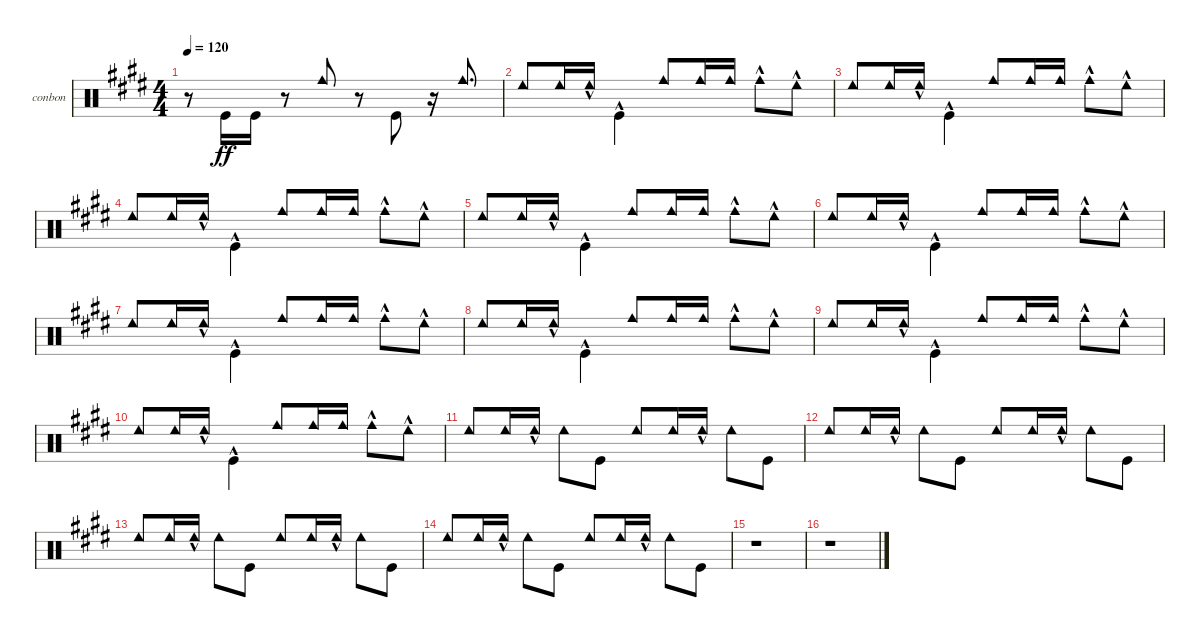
\defaultSystemsLayout 4
\bracketExtendMode groupsimilarinstruments
\firstSystemTrackNameOrientation horizontal
\otherSystemsTrackNameOrientation horizontal
\track ("Bongos N Congas" "conbon") {instrument percussion}
\staff {score}
\articulation defaults
\ts (4 4)
\tempo 120
\clef neutral
\scale
0.333333
\ks e
r.8{dy ff beam invert} "Kick (hit)".16{beam invert} "Kick (hit)".16 r.8{beam invert} "Cowbell medium (hit)".8{beam invert} r.8{beam invert} "Kick (hit)".8{beam invert} r.16{beam invert} "Cowbell medium (hit)".8{d beam invert} |
\scale
0.333333 "Cowbell low (hit)".8 "Cowbell low (hit)".16 "Cowbell low (hit)"{hac}.16 "Kick (hit)"{hac}.4{beam invert} "Cowbell medium (hit)".8{beam invert} "Cowbell medium (hit)".16 "Cowbell medium (hit)".16 "Cowbell medium (hit)"{hac}.8 "Cowbell low (hit)"{hac}.8 |
\scale
0.333333 "Cowbell low (hit)".8 "Cowbell low (hit)".16 "Cowbell low (hit)"{hac}.16 "Kick (hit)"{hac}.4{beam invert} "Cowbell medium (hit)".8{beam invert} "Cowbell medium (hit)".16 "Cowbell medium (hit)".16 "Cowbell medium (hit)"{hac}.8 "Cowbell low (hit)"{hac}.8 |
\scale
0.333333 "Cowbell low (hit)".8 "Cowbell low (hit)".16 "Cowbell low (hit)"{hac}.16 "Kick (hit)"{hac}.4{beam invert} "Cowbell medium (hit)".8{beam invert} "Cowbell medium (hit)".16 "Cowbell medium (hit)".16 "Cowbell medium (hit)"{hac}.8 "Cowbell low (hit)"{hac}.8 |
\scale
0.333333 "Cowbell low (hit)".8 "Cowbell low (hit)".16 "Cowbell low (hit)"{hac}.16 "Kick (hit)"{hac}.4{beam invert} "Cowbell medium (hit)".8{beam invert} "Cowbell medium (hit)".16 "Cowbell medium (hit)".16 "Cowbell medium (hit)"{hac}.8 "Cowbell low (hit)"{hac}.8 |
\scale
0.333333 "Cowbell low (hit)".8 "Cowbell low (hit)".16 "Cowbell low (hit)"{hac}.16 "Kick (hit)"{hac}.4{beam invert} "Cowbell medium (hit)".8{beam invert} "Cowbell medium (hit)".16 "Cowbell medium (hit)".16 "Cowbell medium (hit)"{hac}.8 "Cowbell low (hit)"{hac}.8 |
\scale
0.333333 "Cowbell low (hit)".8 "Cowbell low (hit)".16 "Cowbell low (hit)"{hac}.16 "Kick (hit)"{hac}.4{beam invert} "Cowbell medium (hit)".8{beam invert} "Cowbell medium (hit)".16 "Cowbell medium (hit)".16 "Cowbell medium (hit)"{hac}.8 "Cowbell low (hit)"{hac}.8 |
\scale
0.333333 "Cowbell low (hit)".8 "Cowbell low (hit)".16 "Cowbell low (hit)"{hac}.16 "Kick (hit)"{hac}.4{beam invert} "Cowbell medium (hit)".8{beam invert} "Cowbell medium (hit)".16 "Cowbell medium (hit)".16 "Cowbell medium (hit)"{hac}.8 "Cowbell low (hit)"{hac}.8 |
\scale
0.333333 "Cowbell low (hit)".8 "Cowbell low (hit)".16 "Cowbell low (hit)"{hac}.16 "Kick (hit)"{hac}.4{beam invert} "Cowbell medium (hit)".8{beam invert} "Cowbell medium (hit)".16 "Cowbell medium (hit)".16 "Cowbell medium (hit)"{hac}.8 "Cowbell low (hit)"{hac}.8 |
\scale
0.333333 "Cowbell low (hit)".8 "Cowbell low (hit)".16 "Cowbell low (hit)"{hac}.16 "Kick (hit)"{hac}.4{beam invert} "Cowbell medium (hit)".8{beam invert} "Cowbell medium (hit)".16 "Cowbell medium (hit)".16 "Cowbell medium (hit)"{hac}.8 "Cowbell low (hit)"{hac}.8 |
\scale
0.333333 "Cowbell low (hit)".8 "Cowbell low (hit)".16 "Cowbell low (hit)"{hac}.16 "Cowbell low (hit)".8{beam invert} "Kick (hit)".8 "Cowbell low (hit)".8 "Cowbell low (hit)".16 "Cowbell low (hit)"{hac}.16 "Cowbell low (hit)".8{beam invert} "Kick (hit)".8 |
\scale
0.333333 "Cowbell low (hit)".8 "Cowbell low (hit)".16 "Cowbell low (hit)"{hac}.16 "Cowbell low (hit)".8{beam invert} "Kick (hit)".8 "Cowbell low (hit)".8 "Cowbell low (hit)".16 "Cowbell low (hit)"{hac}.16 "Cowbell low (hit)".8{beam invert} "Kick (hit)".8 |
\scale
0.333333 "Cowbell low (hit)".8 "Cowbell low (hit)".16 "Cowbell low (hit)"{hac}.16 "Cowbell low (hit)".8{beam invert} "Kick (hit)".8 "Cowbell low (hit)".8 "Cowbell low (hit)".16 "Cowbell low (hit)"{hac}.16 "Cowbell low (hit)".8{beam invert} "Kick (hit)".8 |
\scale
0.333333 "Cowbell low (hit)".8 "Cowbell low (hit)".16 "Cowbell low (hit)"{hac}.16 "Cowbell low (hit)".8{beam invert} "Kick (hit)".8 "Cowbell low (hit)".8 "Cowbell low (hit)".16 "Cowbell low (hit)"{hac}.16 "Cowbell low (hit)".8{beam invert} "Kick (hit)".8 |
\scale
0.333333 r.1 |
\scale
0.333333 r.1
